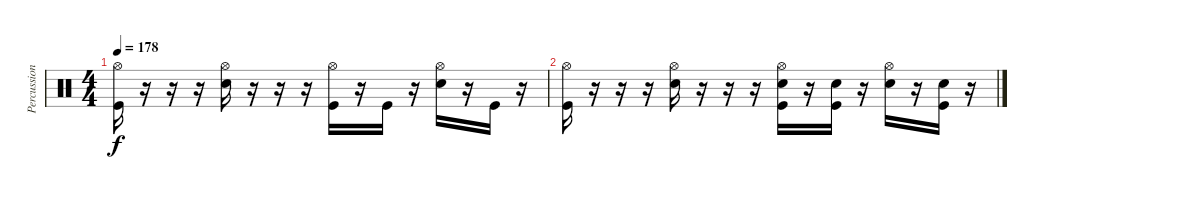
\track ("Percussions" "Percussion") {instrument percussion}
\staff {score}
\articulation defaults
\ts (4 4)
\tempo 178
\clef neutral
\ks c
("Hi-Hat (open)" "Kick (hit)").16{dy f} r.16 r.16 r.16 ("Hi-Hat (open)" "Snare (hit) 2").16 r.16 r.16 r.16 ("Hi-Hat (open)" "Kick (hit)").16 r.16 "Kick (hit)".16 r.16 ("Hi-Hat (open)" "Snare (hit) 2").16 r.16 "Kick (hit)".16 r.16 |
("Hi-Hat (open)" "Kick (hit)").16 r.16 r.16 r.16 ("Hi-Hat (open)" "Snare (hit) 2").16 r.16 r.16 r.16 ("Hi-Hat (open)" "Snare (hit) 2" "Kick (hit)").16 r.16 ("Snare (hit) 2" "Kick (hit)").16 r.16 ("Hi-Hat (open)" "Snare (hit) 2").16 r.16 ("Snare (hit) 2" "Kick (hit)").16 r.16
